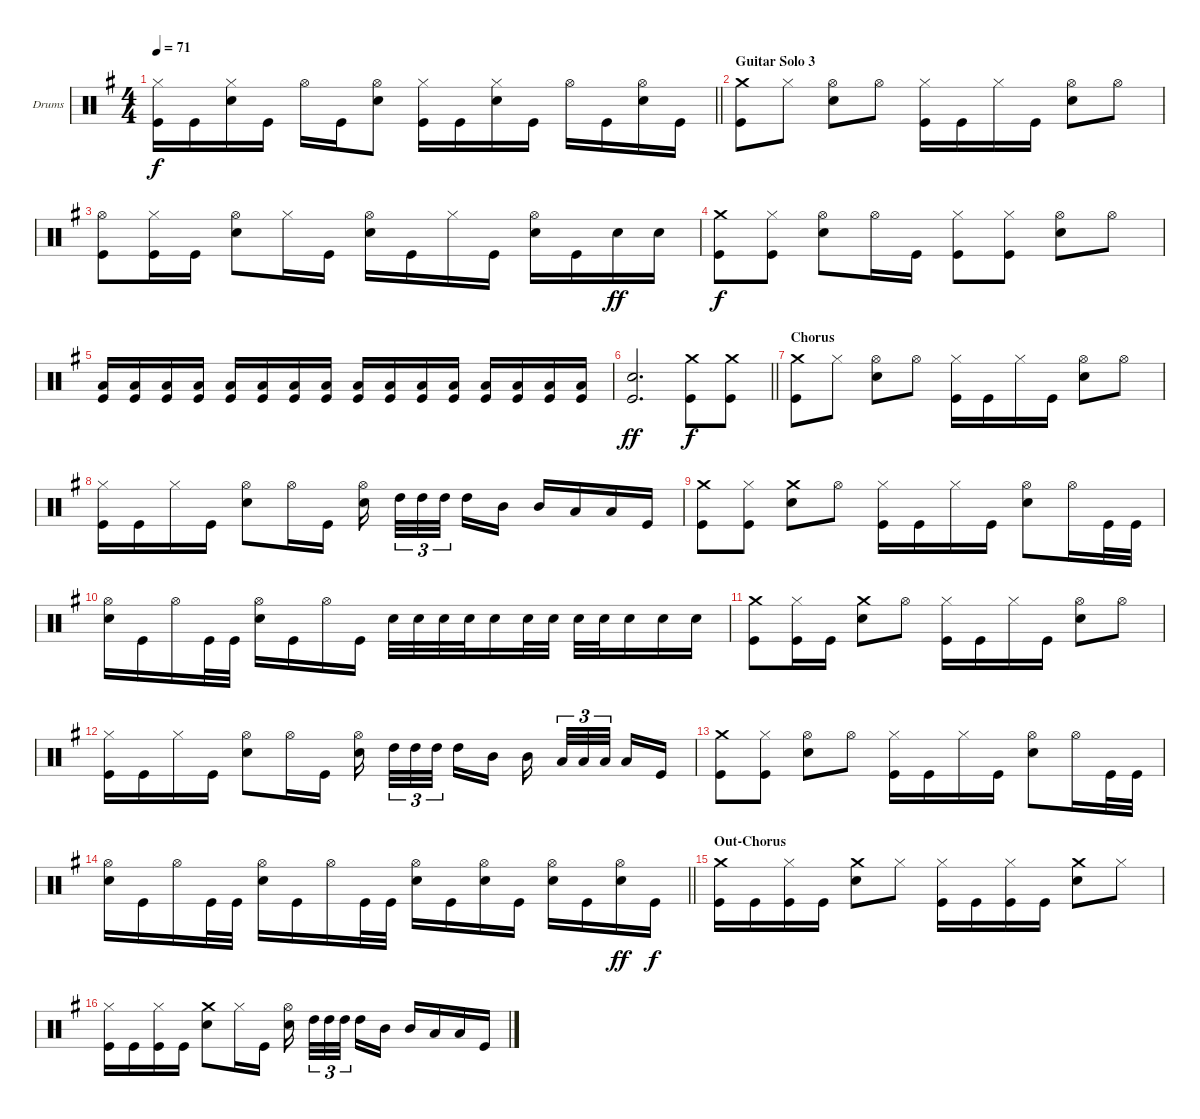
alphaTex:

\bracketExtendMode groupsimilarinstruments
\firstSystemTrackNameOrientation horizontal
\otherSystemsTrackNameOrientation horizontal
\track ("Барабаны" "Drums") {instrument percussion}
\staff {score}
\articulation defaults
\ts (4 4)
\tempo 71
\clef neutral
\barLineRight lightlight
\ks eminor
("Kick (hit)" "Hi-Hat (closed)").16{dy f} "Kick (hit)".16 ("Snare (hit) 2" "Hi-Hat (closed)").16 "Kick (hit)".16 "Hi-Hat (open)".16 "Kick (hit)".16 ("Snare (hit) 2" "Hi-Hat (open)").8 ("Kick (hit)" "Hi-Hat (closed)").16 "Kick (hit)".16 ("Snare (hit) 2" "Hi-Hat (closed)").16 "Kick (hit)".16 "Hi-Hat (open)".16 "Kick (hit)".16 ("Snare (hit) 2" "Hi-Hat (open)").16 "Kick (hit)".16 |
\section ("" "Guitar Solo 3")
("Crash medium (hit)" "Kick (hit)").8 "Hi-Hat (closed)".8 ("Snare (hit) 2" "Hi-Hat (open)").8 "Hi-Hat (open)".8 ("Hi-Hat (closed)" "Kick (hit)").16 "Kick (hit)".16 "Hi-Hat (closed)".16 "Kick (hit)".16 ("Snare (hit) 2" "Hi-Hat (open)").8 "Hi-Hat (open)".8 |
("Hi-Hat (open)" "Kick (hit)").8 ("Kick (hit)" "Hi-Hat (closed)").16 "Kick (hit)".16 ("Snare (hit) 2" "Hi-Hat (open)").8 "Hi-Hat (closed)".16 "Kick (hit)".16 ("Snare (hit) 2" "Hi-Hat (open)").16 "Kick (hit)".16 "Hi-Hat (closed)".16 "Kick (hit)".16 ("Snare (hit) 2" "Hi-Hat (open)").16 "Kick (hit)".16 "Snare (hit) 2".16{dy ff} "Snare (hit) 2".16 |
("Kick (hit)" "Crash medium (hit)").8{dy f} ("Hi-Hat (closed)" "Kick (hit)").8 ("Snare (hit) 2" "Hi-Hat (open)").8 "Hi-Hat (open)".16 "Kick (hit)".16 ("Kick (hit)" "Hi-Hat (closed)").8 ("Kick (hit)" "Hi-Hat (closed)").8 ("Snare (hit) 2" "Hi-Hat (open)").8 "Hi-Hat (open)".8 |
("Kick (hit)" "Low Tom (hit)").16 ("Kick (hit)" "Low Tom (hit)").16 ("Kick (hit)" "Low Tom (hit)").16 ("Kick (hit)" "Low Tom (hit)").16 ("Kick (hit)" "Low Tom (hit)").16 ("Kick (hit)" "Low Tom (hit)").16 ("Kick (hit)" "Low Tom (hit)").16 ("Kick (hit)" "Low Tom (hit)").16 ("Kick (hit)" "Low Tom (hit)").16 ("Kick (hit)" "Low Tom (hit)").16 ("Kick (hit)" "Low Tom (hit)").16 ("Kick (hit)" "Low Tom (hit)").16 ("Kick (hit)" "Low Tom (hit)").16 ("Kick (hit)" "Low Tom (hit)").16 ("Kick (hit)" "Low Tom (hit)").16 ("Kick (hit)" "Low Tom (hit)").16 |
\barLineRight lightlight
("Snare (hit) 2" "Kick (hit)").2{d dy ff} ("Kick (hit)" "Crash medium (hit)").8{dy f} ("Kick (hit)" "Crash medium (hit)").8 |
\section ("" "Chorus")
("Kick (hit)" "Crash medium (hit)").8 "Hi-Hat (closed)".8 ("Hi-Hat (open)" "Snare (hit) 2").8 "Hi-Hat (open)".8 ("Kick (hit)" "Hi-Hat (closed)").16 "Kick (hit)".16 "Hi-Hat (closed)".16 "Kick (hit)".16 ("Snare (hit) 2" "Hi-Hat (open)").8 "Hi-Hat (open)".8 |
("Kick (hit)" "Hi-Hat (closed)").16 "Kick (hit)".16 "Hi-Hat (closed)".16 "Kick (hit)".16 ("Hi-Hat (open)" "Snare (hit) 2").8 "Hi-Hat (open)".16 "Kick (hit)".16 ("Snare (hit) 2" "Hi-Hat (open)").16 "High Tom (hit)".32{tu (3 2)} "High Tom (hit)".32{tu (3 2)} "High Tom (hit)".32{tu (3 2)} "High Tom (hit)".16 "Mid Tom (hit)".16 "Mid Tom (hit)".16 "Low Tom (hit)".16 "Low Tom (hit)".16 "Kick (hit)".16 |
("Kick (hit)" "Crash medium (hit)").8 ("Hi-Hat (closed)" "Kick (hit)").8 ("Crash medium (hit)" "Snare (hit) 2").8 "Hi-Hat (open)".8 ("Kick (hit)" "Hi-Hat (closed)").16 "Kick (hit)".16 "Hi-Hat (closed)".16 "Kick (hit)".16 ("Snare (hit) 2" "Hi-Hat (open)").8 "Hi-Hat (open)".16 "Kick (hit)".32 "Kick (hit)".32 |
("Snare (hit) 2" "Hi-Hat (open)").16 "Kick (hit)".16 "Hi-Hat (open)".16 "Kick (hit)".32 "Kick (hit)".32 ("Snare (hit) 2" "Hi-Hat (open)").16 "Kick (hit)".16 "Hi-Hat (open)".16 "Kick (hit)".16 "Snare (hit) 2".32 "Snare (hit) 2".32 "Snare (hit) 2".32 "Snare (hit) 2".32 "Snare (hit) 2".16 "Snare (hit) 2".32 "Snare (hit) 2".32 "Snare (hit) 2".32 "Snare (hit) 2".32 "Snare (hit) 2".16 "Snare (hit) 2".16 "Snare (hit) 2".16 |
("Kick (hit)" "Crash medium (hit)").8 ("Hi-Hat (closed)" "Kick (hit)").16 "Kick (hit)".16 ("Crash medium (hit)" "Snare (hit) 2").8 "Hi-Hat (open)".8 ("Kick (hit)" "Hi-Hat (closed)").16 "Kick (hit)".16 "Hi-Hat (closed)".16 "Kick (hit)".16 ("Snare (hit) 2" "Hi-Hat (open)").8 "Hi-Hat (open)".8 |
("Kick (hit)" "Hi-Hat (closed)").16 "Kick (hit)".16 "Hi-Hat (closed)".16 "Kick (hit)".16 ("Hi-Hat (open)" "Snare (hit) 2").8 "Hi-Hat (open)".16 "Kick (hit)".16 ("Snare (hit) 2" "Hi-Hat (open)").16 "High Tom (hit)".32{tu (3 2)} "High Tom (hit)".32{tu (3 2)} "High Tom (hit)".32{tu (3 2)} "High Tom (hit)".16 "Mid Tom (hit)".16 "Mid Tom (hit)".16 "Low Tom (hit)".32{tu (3 2)} "Low Tom (hit)".32{tu (3 2)} "Low Tom (hit)".32{tu (3 2)} "Low Tom (hit)".16 "Kick (hit)".16 |
("Kick (hit)" "Crash medium (hit)").8 ("Hi-Hat (closed)" "Kick (hit)").8 ("Hi-Hat (open)" "Snare (hit) 2").8 "Hi-Hat (open)".8 ("Kick (hit)" "Hi-Hat (closed)").16 "Kick (hit)".16 "Hi-Hat (closed)".16 "Kick (hit)".16 ("Snare (hit) 2" "Hi-Hat (open)").8 "Hi-Hat (open)".16 "Kick (hit)".32 "Kick (hit)".32 |
\barLineRight lightlight
("Snare (hit) 2" "Hi-Hat (open)").16 "Kick (hit)".16 "Hi-Hat (open)".16 "Kick (hit)".32 "Kick (hit)".32 ("Snare (hit) 2" "Hi-Hat (open)").16 "Kick (hit)".16 "Hi-Hat (open)".16 "Kick (hit)".32 "Kick (hit)".32 ("Snare (hit) 2" "Hi-Hat (open)").16 "Kick (hit)".16 ("Snare (hit) 2" "Hi-Hat (open)").16 "Kick (hit)".16 ("Snare (hit) 2" "Hi-Hat (open)").16 "Kick (hit)".16 ("Snare (hit) 2" "Hi-Hat (open)").16{dy ff} "Kick (hit)".16{dy f} |
\section ("" "Out-Chorus")
("Kick (hit)" "Crash medium (hit)").16 "Kick (hit)".16 ("Kick (hit)" "Hi-Hat (closed)").16 "Kick (hit)".16 ("Snare (hit) 2" "Crash medium (hit)").8 "Hi-Hat (closed)".8 ("Kick (hit)" "Hi-Hat (closed)").16 "Kick (hit)".16 ("Kick (hit)" "Hi-Hat (closed)").16 "Kick (hit)".16 ("Snare (hit) 2" "Crash medium (hit)").8 "Hi-Hat (closed)".8 |
("Kick (hit)" "Hi-Hat (closed)").16 "Kick (hit)".16 ("Hi-Hat (closed)" "Kick (hit)").16 "Kick (hit)".16 ("Crash medium (hit)" "Snare (hit) 2").8 "Hi-Hat (closed)".16 "Kick (hit)".16 ("Snare (hit) 2" "Hi-Hat (open)").16 "High Tom (hit)".32{tu (3 2)} "High Tom (hit)".32{tu (3 2)} "High Tom (hit)".32{tu (3 2)} "High Tom (hit)".16 "Mid Tom (hit)".16 "Mid Tom (hit)".16 "Low Tom (hit)".16 "Low Tom (hit)".16 "Kick (hit)".16
